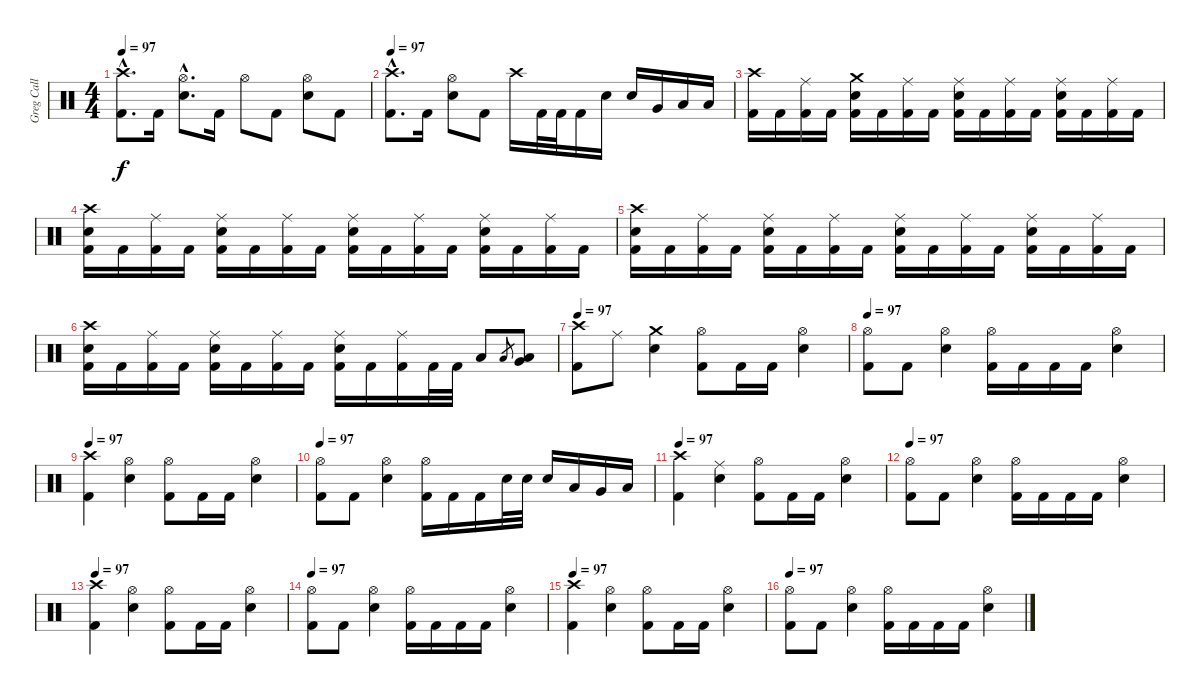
\track ("Greg Call (Drums)" "Greg Call ") {instrument percussion}
\staff {score}
\articulation defaults
\ts (4 4)
\tempo 97
\clef neutral
\ks c
("Crash high (hit)"{hac} "Kick (hit) 2"{hac}).8{d dy f} "Kick (hit) 2".16 ("Hi-Hat (open)"{hac} "Snare (hit) 2"{hac}).8{d} "Kick (hit) 2".16 "Hi-Hat (open)".8 "Kick (hit) 2".8 ("Hi-Hat (open)" "Snare (hit) 2").8 "Kick (hit) 2".8 |
\tempo 97
("Crash high (hit)"{hac} "Kick (hit) 2"{hac}).8{d} "Kick (hit) 2".16 ("Hi-Hat (open)" "Snare (hit) 2").8 "Kick (hit) 2".8 "Crash high (hit)".16 "Kick (hit) 2".32 "Kick (hit) 2".32 "Kick (hit) 2".16 "Snare (hit) 2".16 "Snare (hit) 2".16 "Very Low Tom (hit)".16 "Low Floor Tom (hit)".16 "Low Floor Tom (hit)".16 |
("Crash high (hit)" "Kick (hit) 2").16 "Kick (hit) 2".16 ("Ride (middle)" "Kick (hit) 2").16 "Kick (hit) 2".16 ("Snare (hit) 2" "Crash medium (hit)" "Kick (hit) 2").16 "Kick (hit) 2".16 ("Ride (middle)" "Kick (hit) 2").16 "Kick (hit) 2".16 ("Snare (hit) 2" "Ride (middle)" "Kick (hit) 2").16 "Kick (hit) 2".16 ("Ride (middle)" "Kick (hit) 2").16 "Kick (hit) 2".16 ("Ride (middle)" "Snare (hit) 2" "Kick (hit) 2").16 "Kick (hit) 2".16 ("Ride (middle)" "Kick (hit) 2").16 "Kick (hit) 2".16 |
("Snare (hit) 2" "Crash high (hit)" "Kick (hit) 2").16 "Kick (hit) 2".16 ("Ride (middle)" "Kick (hit) 2").16 "Kick (hit) 2".16 ("Snare (hit) 2" "Ride (middle)" "Kick (hit) 2").16 "Kick (hit) 2".16 ("Ride (middle)" "Kick (hit) 2").16 "Kick (hit) 2".16 ("Snare (hit) 2" "Ride (middle)" "Kick (hit) 2").16 "Kick (hit) 2".16 ("Ride (middle)" "Kick (hit) 2").16 "Kick (hit) 2".16 ("Ride (middle)" "Snare (hit) 2" "Kick (hit) 2").16 "Kick (hit) 2".16 ("Ride (middle)" "Kick (hit) 2").16 "Kick (hit) 2".16 |
("Snare (hit) 2" "Crash high (hit)" "Kick (hit) 2").16 "Kick (hit) 2".16 ("Ride (middle)" "Kick (hit) 2").16 "Kick (hit) 2".16 ("Snare (hit) 2" "Ride (middle)" "Kick (hit) 2").16 "Kick (hit) 2".16 ("Ride (middle)" "Kick (hit) 2").16 "Kick (hit) 2".16 ("Snare (hit) 2" "Ride (middle)" "Kick (hit) 2").16 "Kick (hit) 2".16 ("Ride (middle)" "Kick (hit) 2").16 "Kick (hit) 2".16 ("Ride (middle)" "Snare (hit) 2" "Kick (hit) 2").16 "Kick (hit) 2".16 ("Ride (middle)" "Kick (hit) 2").16 "Kick (hit) 2".16 |
("Snare (hit) 2" "Crash high (hit)" "Kick (hit) 2").16 "Kick (hit) 2".16 ("Ride (middle)" "Kick (hit) 2").16 "Kick (hit) 2".16 ("Snare (hit) 2" "Ride (middle)" "Kick (hit) 2").16 "Kick (hit) 2".16 ("Ride (middle)" "Kick (hit) 2").16 "Kick (hit) 2".16 ("Snare (hit) 2" "Ride (middle)" "Kick (hit) 2").16 "Kick (hit) 2".16 ("Ride (middle)" "Kick (hit) 2").16 "Kick (hit) 2".32 "Kick (hit) 2".32 "Low Tom (hit)".8 "Low Floor Tom (hit)".8{gr} ("Low Floor Tom (hit)" "Very Low Tom (hit)").8 |
\tempo 97
("Crash high (hit)" "Kick (hit) 2").8 "Ride (middle)".8 ("Crash medium (hit)" "Snare (hit) 2").4 ("Hi-Hat (open)" "Kick (hit) 2").8 "Kick (hit) 2".16 "Kick (hit) 2".16 ("Hi-Hat (open)" "Snare (hit) 2").4 |
\tempo 97
("Hi-Hat (open)" "Kick (hit) 2").8 "Kick (hit) 2".8 ("Hi-Hat (open)" "Snare (hit) 2").4 ("Hi-Hat (open)" "Kick (hit) 2").16 "Kick (hit) 2".16 "Kick (hit) 2".16 "Kick (hit) 2".16 ("Hi-Hat (open)" "Snare (hit) 2").4 |
\tempo 97
("Crash high (hit)" "Kick (hit) 2").4 ("Hi-Hat (open)" "Snare (hit) 2").4 ("Hi-Hat (open)" "Kick (hit) 2").8 "Kick (hit) 2".16 "Kick (hit) 2".16 ("Hi-Hat (open)" "Snare (hit) 2").4 |
\tempo 97
("Hi-Hat (open)" "Kick (hit) 2").8 "Kick (hit) 2".8 ("Hi-Hat (open)" "Snare (hit) 2").4 ("Hi-Hat (open)" "Kick (hit) 2").16 "Kick (hit) 2".16 "Kick (hit) 2".16 "Snare (hit) 2".32 "Snare (hit) 2".32 "Snare (hit) 2".16 "Low Tom (hit)".16 "Very Low Tom (hit)".16 "Low Floor Tom (hit)".16 |
\tempo 97
("Crash high (hit)" "Kick (hit) 2").4 ("Ride (middle)" "Snare (hit) 2").4 ("Hi-Hat (open)" "Kick (hit) 2").8 "Kick (hit) 2".16 "Kick (hit) 2".16 ("Hi-Hat (open)" "Snare (hit) 2").4 |
\tempo 97
("Hi-Hat (open)" "Kick (hit) 2").8 "Kick (hit) 2".8 ("Hi-Hat (open)" "Snare (hit) 2").4 ("Hi-Hat (open)" "Kick (hit) 2").16 "Kick (hit) 2".16 "Kick (hit) 2".16 "Kick (hit) 2".16 ("Hi-Hat (open)" "Snare (hit) 2").4 |
\tempo 97
("Crash high (hit)" "Kick (hit) 2").4 ("Hi-Hat (open)" "Snare (hit) 2").4 ("Hi-Hat (open)" "Kick (hit) 2").8 "Kick (hit) 2".16 "Kick (hit) 2".16 ("Hi-Hat (open)" "Snare (hit) 2").4 |
\tempo 97
("Hi-Hat (open)" "Kick (hit) 2").8 "Kick (hit) 2".8 ("Hi-Hat (open)" "Snare (hit) 2").4 ("Hi-Hat (open)" "Kick (hit) 2").16 "Kick (hit) 2".16 "Kick (hit) 2".16 "Kick (hit) 2".16 ("Hi-Hat (open)" "Snare (hit) 2").4 |
\tempo 97
("Crash high (hit)" "Kick (hit) 2").4 ("Hi-Hat (open)" "Snare (hit) 2").4 ("Hi-Hat (open)" "Kick (hit) 2").8 "Kick (hit) 2".16 "Kick (hit) 2".16 ("Hi-Hat (open)" "Snare (hit) 2").4 |
\tempo 97
("Hi-Hat (open)" "Kick (hit) 2").8 "Kick (hit) 2".8 ("Hi-Hat (open)" "Snare (hit) 2").4 ("Hi-Hat (open)" "Kick (hit) 2").16 "Kick (hit) 2".16 "Kick (hit) 2".16 "Kick (hit) 2".16 ("Hi-Hat (open)" "Snare (hit) 2").4
